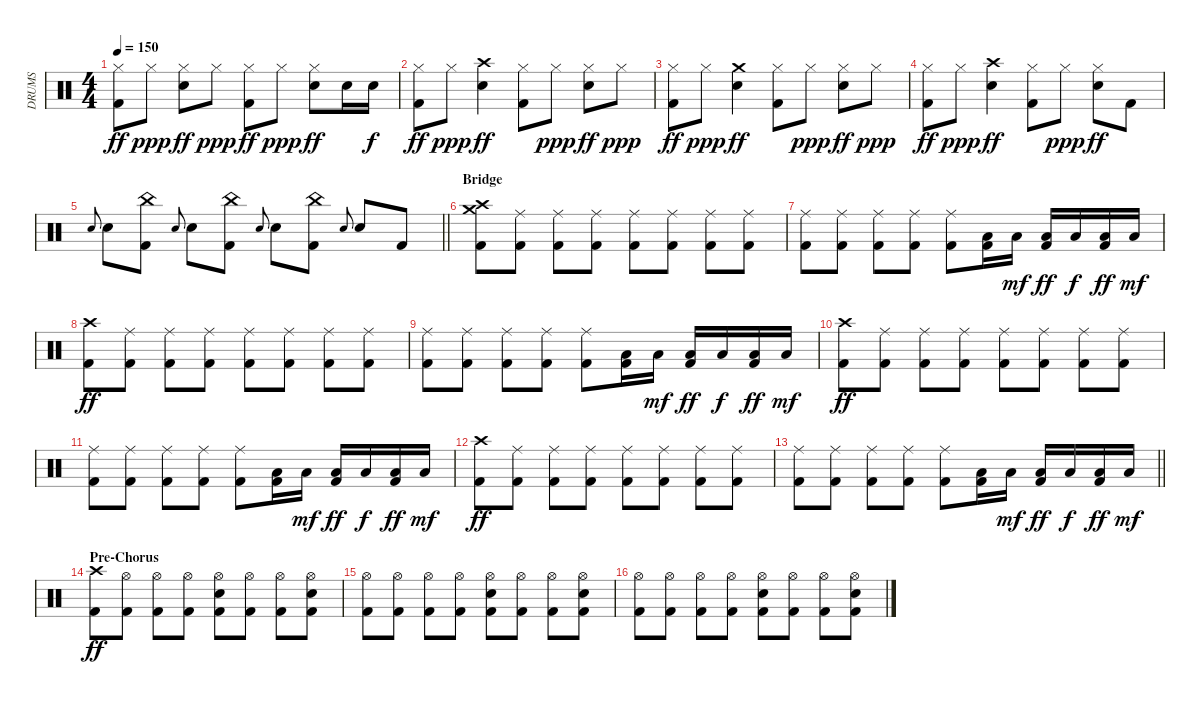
\track ("DRUMS" "DRUMS") {instrument percussion}
\staff {score}
\articulation defaults
\ts (4 4)
\tempo 150
\clef neutral
\ks c
("Hi-Hat (closed)" "Kick (hit) 2").8{dy ff} "Hi-Hat (closed)".8{dy ppp} ("Hi-Hat (closed)" "Snare (hit) 2").8{dy ff} "Hi-Hat (closed)".8{dy ppp} ("Hi-Hat (closed)" "Kick (hit) 2").8{dy ff} "Hi-Hat (closed)".8{dy ppp} ("Hi-Hat (closed)" "Snare (hit) 2").8{dy ff} "Electric Snare (hit)".16 "Snare (hit) 2".16{dy f} |
("Hi-Hat (closed)" "Kick (hit) 2").8{dy ff} "Hi-Hat (closed)".8{dy ppp} ("Crash high (hit)" "Snare (hit) 2").4{dy ff} ("Hi-Hat (closed)" "Kick (hit) 2").8 "Hi-Hat (closed)".8{dy ppp} ("Hi-Hat (closed)" "Snare (hit) 2").8{dy ff} "Hi-Hat (closed)".8{dy ppp} |
("Hi-Hat (closed)" "Kick (hit) 2").8{dy ff} "Hi-Hat (closed)".8{dy ppp} ("Crash medium (hit)" "Snare (hit) 2").4{dy ff} ("Hi-Hat (closed)" "Kick (hit) 2").8 "Hi-Hat (closed)".8{dy ppp} ("Hi-Hat (closed)" "Snare (hit) 2").8{dy ff} "Hi-Hat (closed)".8{dy ppp} |
("Hi-Hat (closed)" "Kick (hit) 2").8{dy ff} "Hi-Hat (closed)".8{dy ppp} ("Crash high (hit)" "Snare (hit) 2").4{dy ff} ("Hi-Hat (closed)" "Kick (hit) 2").8 "Hi-Hat (closed)".8{dy ppp} ("Hi-Hat (closed)" "Snare (hit) 2").8{dy ff} "Kick (hit) 2".8 |
\barLineRight lightlight "Electric Snare (hit)".8{gr onbeat} "Snare (hit) 2".8
("China (hit)" "Kick (hit) 2").8 "Electric Snare (hit)".8{gr onbeat} "Snare (hit) 2".8 ("China (hit)" "Kick (hit) 2").8 "Electric Snare (hit)".8{gr onbeat} "Snare (hit) 2".8 ("China (hit)" "Kick (hit) 2").8 "Electric Snare (hit)".8{gr onbeat} "Snare (hit) 2".8 "Kick (hit) 2".8 |
\section ("" "Bridge")
("Crash medium (hit)" "Crash high (hit)" "Kick (hit) 2").8 ("Ride (middle)" "Kick (hit) 2").8 ("Ride (middle)" "Kick (hit) 2").8 ("Ride (middle)" "Kick (hit) 2").8 ("Ride (middle)" "Kick (hit) 2").8 ("Ride (middle)" "Kick (hit) 2").8 ("Ride (middle)" "Kick (hit) 2").8 ("Ride (middle)" "Kick (hit) 2").8 |
("Ride (middle)" "Kick (hit) 2").8 ("Ride (middle)" "Kick (hit) 2").8 ("Ride (middle)" "Kick (hit) 2").8 ("Ride (middle)" "Kick (hit) 2").8 ("Ride (middle)" "Kick (hit) 2").8 ("Low Tom (hit)" "Kick (hit) 2").16 "Low Tom (hit)".16{dy mf} ("Low Tom (hit)" "Kick (hit) 2").16{dy ff} "Low Tom (hit)".16{dy f} ("Low Tom (hit)" "Kick (hit) 2").16{dy ff} "Low Tom (hit)".16{dy mf} |
("Crash high (hit)" "Kick (hit) 2").8{dy ff} ("Ride (middle)" "Kick (hit) 2").8 ("Ride (middle)" "Kick (hit) 2").8 ("Ride (middle)" "Kick (hit) 2").8 ("Ride (middle)" "Kick (hit) 2").8 ("Ride (middle)" "Kick (hit) 2").8 ("Ride (middle)" "Kick (hit) 2").8 ("Ride (middle)" "Kick (hit) 2").8 |
("Ride (middle)" "Kick (hit) 2").8 ("Ride (middle)" "Kick (hit) 2").8 ("Ride (middle)" "Kick (hit) 2").8 ("Ride (middle)" "Kick (hit) 2").8 ("Ride (middle)" "Kick (hit) 2").8 ("Low Tom (hit)" "Kick (hit) 2").16 "Low Tom (hit)".16{dy mf} ("Low Tom (hit)" "Kick (hit) 2").16{dy ff} "Low Tom (hit)".16{dy f} ("Low Tom (hit)" "Kick (hit) 2").16{dy ff} "Low Tom (hit)".16{dy mf} |
("Crash high (hit)" "Kick (hit) 2").8{dy ff} ("Ride (middle)" "Kick (hit) 2").8 ("Ride (middle)" "Kick (hit) 2").8 ("Ride (middle)" "Kick (hit) 2").8 ("Ride (middle)" "Kick (hit) 2").8 ("Ride (middle)" "Kick (hit) 2").8 ("Ride (middle)" "Kick (hit) 2").8 ("Ride (middle)" "Kick (hit) 2").8 |
("Ride (middle)" "Kick (hit) 2").8 ("Ride (middle)" "Kick (hit) 2").8 ("Ride (middle)" "Kick (hit) 2").8 ("Ride (middle)" "Kick (hit) 2").8 ("Ride (middle)" "Kick (hit) 2").8 ("Low Tom (hit)" "Kick (hit) 2").16 "Low Tom (hit)".16{dy mf} ("Low Tom (hit)" "Kick (hit) 2").16{dy ff} "Low Tom (hit)".16{dy f} ("Low Tom (hit)" "Kick (hit) 2").16{dy ff} "Low Tom (hit)".16{dy mf} |
("Crash high (hit)" "Kick (hit) 2").8{dy ff} ("Ride (middle)" "Kick (hit) 2").8 ("Ride (middle)" "Kick (hit) 2").8 ("Ride (middle)" "Kick (hit) 2").8 ("Ride (middle)" "Kick (hit) 2").8 ("Ride (middle)" "Kick (hit) 2").8 ("Ride (middle)" "Kick (hit) 2").8 ("Ride (middle)" "Kick (hit) 2").8 |
\barLineRight lightlight
("Ride (middle)" "Kick (hit) 2").8 ("Ride (middle)" "Kick (hit) 2").8 ("Ride (middle)" "Kick (hit) 2").8 ("Ride (middle)" "Kick (hit) 2").8 ("Ride (middle)" "Kick (hit) 2").8 ("Low Tom (hit)" "Kick (hit) 2").16 "Low Tom (hit)".16{dy mf} ("Low Tom (hit)" "Kick (hit) 2").16{dy ff} "Low Tom (hit)".16{dy f} ("Low Tom (hit)" "Kick (hit) 2").16{dy ff} "Low Tom (hit)".16{dy mf} |
\section ("" "Pre-Chorus")
("Crash high (hit)" "Kick (hit) 2").8{dy ff} ("Hi-Hat (open)" "Kick (hit) 2").8 ("Hi-Hat (open)" "Kick (hit) 2").8 ("Hi-Hat (open)" "Kick (hit) 2").8 ("Hi-Hat (open)" "Snare (hit) 2" "Kick (hit) 2").8 ("Hi-Hat (open)" "Kick (hit) 2").8 ("Hi-Hat (open)" "Kick (hit) 2").8 ("Hi-Hat (open)" "Snare (hit) 2" "Kick (hit) 2").8 |
("Hi-Hat (open)" "Kick (hit) 2").8 ("Hi-Hat (open)" "Kick (hit) 2").8 ("Hi-Hat (open)" "Kick (hit) 2").8 ("Hi-Hat (open)" "Kick (hit) 2").8 ("Hi-Hat (open)" "Snare (hit) 2" "Kick (hit) 2").8 ("Hi-Hat (open)" "Kick (hit) 2").8 ("Hi-Hat (open)" "Kick (hit) 2").8 ("Hi-Hat (open)" "Snare (hit) 2" "Kick (hit) 2").8 |
("Hi-Hat (open)" "Kick (hit) 2").8 ("Hi-Hat (open)" "Kick (hit) 2").8 ("Hi-Hat (open)" "Kick (hit) 2").8 ("Hi-Hat (open)" "Kick (hit) 2").8 ("Hi-Hat (open)" "Snare (hit) 2" "Kick (hit) 2").8 ("Hi-Hat (open)" "Kick (hit) 2").8 ("Hi-Hat (open)" "Kick (hit) 2").8 ("Hi-Hat (open)" "Snare (hit) 2" "Kick (hit) 2").8
